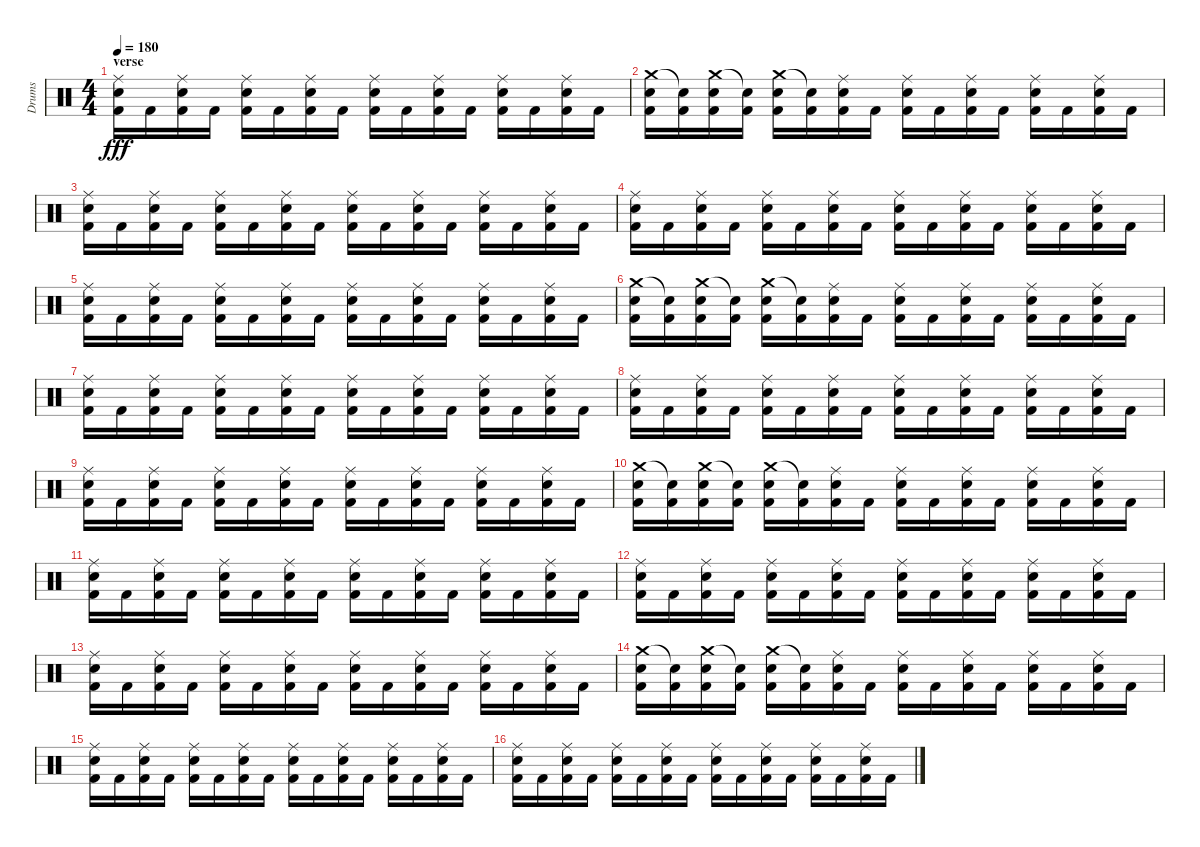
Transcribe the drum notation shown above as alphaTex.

\track ("Drums" "Drums") {instrument percussion}
\staff {score}
\articulation defaults
\ts (4 4)
\section ("" "verse")
\tempo 180
\clef neutral
\ks c
("Ride (middle)" "Electric Snare (hit)" "Kick (hit) 2").16{dy fff} "Kick (hit) 2".16 ("Ride (middle)" "Electric Snare (hit)" "Kick (hit) 2").16 "Kick (hit) 2".16 ("Ride (middle)" "Snare (hit) 2" "Kick (hit) 2").16 "Kick (hit) 2".16 ("Ride (middle)" "Snare (hit) 2" "Kick (hit) 2").16 "Kick (hit) 2".16 ("Ride (middle)" "Electric Snare (hit)" "Kick (hit) 2").16 "Kick (hit) 2".16 ("Ride (middle)" "Electric Snare (hit)" "Kick (hit) 2").16 "Kick (hit) 2".16 ("Ride (middle)" "Snare (hit) 2" "Kick (hit) 2").16 "Kick (hit) 2".16 ("Ride (middle)" "Snare (hit) 2" "Kick (hit) 2").16 "Kick (hit) 2".16 |
("Crash medium (hit)" "Electric Snare (hit)" "Kick (hit) 2").16 ("Snare (hit)"{t} "Kick (hit) 2").16 ("Crash medium (hit)" "Electric Snare (hit)" "Kick (hit) 2").16 ("Snare (hit)"{t} "Kick (hit) 2").16 ("Crash medium (hit)" "Snare (hit) 2" "Kick (hit) 2").16 ("Snare (hit)"{t} "Kick (hit) 2").16 ("Ride (middle)" "Snare (hit) 2" "Kick (hit) 2").16 "Kick (hit) 2".16 ("Ride (middle)" "Electric Snare (hit)" "Kick (hit) 2").16 "Kick (hit) 2".16 ("Ride (middle)" "Electric Snare (hit)" "Kick (hit) 2").16 "Kick (hit) 2".16 ("Ride (middle)" "Snare (hit) 2" "Kick (hit) 2").16 "Kick (hit) 2".16 ("Ride (middle)" "Snare (hit) 2" "Kick (hit) 2").16 "Kick (hit) 2".16 |
("Ride (middle)" "Electric Snare (hit)" "Kick (hit) 2").16 "Kick (hit) 2".16 ("Ride (middle)" "Electric Snare (hit)" "Kick (hit) 2").16 "Kick (hit) 2".16 ("Ride (middle)" "Snare (hit) 2" "Kick (hit) 2").16 "Kick (hit) 2".16 ("Ride (middle)" "Snare (hit) 2" "Kick (hit) 2").16 "Kick (hit) 2".16 ("Ride (middle)" "Electric Snare (hit)" "Kick (hit) 2").16 "Kick (hit) 2".16 ("Ride (middle)" "Electric Snare (hit)" "Kick (hit) 2").16 "Kick (hit) 2".16 ("Ride (middle)" "Snare (hit) 2" "Kick (hit) 2").16 "Kick (hit) 2".16 ("Ride (middle)" "Snare (hit) 2" "Kick (hit) 2").16 "Kick (hit) 2".16 |
("Ride (middle)" "Electric Snare (hit)" "Kick (hit) 2").16 "Kick (hit) 2".16 ("Ride (middle)" "Electric Snare (hit)" "Kick (hit) 2").16 "Kick (hit) 2".16 ("Ride (middle)" "Snare (hit) 2" "Kick (hit) 2").16 "Kick (hit) 2".16 ("Ride (middle)" "Snare (hit) 2" "Kick (hit) 2").16 "Kick (hit) 2".16 ("Ride (middle)" "Electric Snare (hit)" "Kick (hit) 2").16 "Kick (hit) 2".16 ("Ride (middle)" "Electric Snare (hit)" "Kick (hit) 2").16 "Kick (hit) 2".16 ("Ride (middle)" "Snare (hit) 2" "Kick (hit) 2").16 "Kick (hit) 2".16 ("Ride (middle)" "Snare (hit) 2" "Kick (hit) 2").16 "Kick (hit) 2".16 |
("Ride (middle)" "Electric Snare (hit)" "Kick (hit) 2").16 "Kick (hit) 2".16 ("Ride (middle)" "Electric Snare (hit)" "Kick (hit) 2").16 "Kick (hit) 2".16 ("Ride (middle)" "Snare (hit) 2" "Kick (hit) 2").16 "Kick (hit) 2".16 ("Ride (middle)" "Snare (hit) 2" "Kick (hit) 2").16 "Kick (hit) 2".16 ("Ride (middle)" "Electric Snare (hit)" "Kick (hit) 2").16 "Kick (hit) 2".16 ("Ride (middle)" "Electric Snare (hit)" "Kick (hit) 2").16 "Kick (hit) 2".16 ("Ride (middle)" "Snare (hit) 2" "Kick (hit) 2").16 "Kick (hit) 2".16 ("Ride (middle)" "Snare (hit) 2" "Kick (hit) 2").16 "Kick (hit) 2".16 |
("Crash medium (hit)" "Electric Snare (hit)" "Kick (hit) 2").16 ("Snare (hit)"{t} "Kick (hit) 2").16 ("Crash medium (hit)" "Electric Snare (hit)" "Kick (hit) 2").16 ("Snare (hit)"{t} "Kick (hit) 2").16 ("Crash medium (hit)" "Snare (hit) 2" "Kick (hit) 2").16 ("Snare (hit)"{t} "Kick (hit) 2").16 ("Ride (middle)" "Snare (hit) 2" "Kick (hit) 2").16 "Kick (hit) 2".16 ("Ride (middle)" "Electric Snare (hit)" "Kick (hit) 2").16 "Kick (hit) 2".16 ("Ride (middle)" "Electric Snare (hit)" "Kick (hit) 2").16 "Kick (hit) 2".16 ("Ride (middle)" "Snare (hit) 2" "Kick (hit) 2").16 "Kick (hit) 2".16 ("Ride (middle)" "Snare (hit) 2" "Kick (hit) 2").16 "Kick (hit) 2".16 |
("Ride (middle)" "Electric Snare (hit)" "Kick (hit) 2").16 "Kick (hit) 2".16 ("Ride (middle)" "Electric Snare (hit)" "Kick (hit) 2").16 "Kick (hit) 2".16 ("Ride (middle)" "Snare (hit) 2" "Kick (hit) 2").16 "Kick (hit) 2".16 ("Ride (middle)" "Snare (hit) 2" "Kick (hit) 2").16 "Kick (hit) 2".16 ("Ride (middle)" "Electric Snare (hit)" "Kick (hit) 2").16 "Kick (hit) 2".16 ("Ride (middle)" "Electric Snare (hit)" "Kick (hit) 2").16 "Kick (hit) 2".16 ("Ride (middle)" "Snare (hit) 2" "Kick (hit) 2").16 "Kick (hit) 2".16 ("Ride (middle)" "Snare (hit) 2" "Kick (hit) 2").16 "Kick (hit) 2".16 |
("Ride (middle)" "Electric Snare (hit)" "Kick (hit) 2").16 "Kick (hit) 2".16 ("Ride (middle)" "Electric Snare (hit)" "Kick (hit) 2").16 "Kick (hit) 2".16 ("Ride (middle)" "Snare (hit) 2" "Kick (hit) 2").16 "Kick (hit) 2".16 ("Ride (middle)" "Snare (hit) 2" "Kick (hit) 2").16 "Kick (hit) 2".16 ("Ride (middle)" "Electric Snare (hit)" "Kick (hit) 2").16 "Kick (hit) 2".16 ("Ride (middle)" "Electric Snare (hit)" "Kick (hit) 2").16 "Kick (hit) 2".16 ("Ride (middle)" "Snare (hit) 2" "Kick (hit) 2").16 "Kick (hit) 2".16 ("Ride (middle)" "Snare (hit) 2" "Kick (hit) 2").16 "Kick (hit) 2".16 |
("Ride (middle)" "Electric Snare (hit)" "Kick (hit) 2").16 "Kick (hit) 2".16 ("Ride (middle)" "Electric Snare (hit)" "Kick (hit) 2").16 "Kick (hit) 2".16 ("Ride (middle)" "Snare (hit) 2" "Kick (hit) 2").16 "Kick (hit) 2".16 ("Ride (middle)" "Snare (hit) 2" "Kick (hit) 2").16 "Kick (hit) 2".16 ("Ride (middle)" "Electric Snare (hit)" "Kick (hit) 2").16 "Kick (hit) 2".16 ("Ride (middle)" "Electric Snare (hit)" "Kick (hit) 2").16 "Kick (hit) 2".16 ("Ride (middle)" "Snare (hit) 2" "Kick (hit) 2").16 "Kick (hit) 2".16 ("Ride (middle)" "Snare (hit) 2" "Kick (hit) 2").16 "Kick (hit) 2".16 |
("Crash medium (hit)" "Electric Snare (hit)" "Kick (hit) 2").16 ("Snare (hit)"{t} "Kick (hit) 2").16 ("Crash medium (hit)" "Electric Snare (hit)" "Kick (hit) 2").16 ("Snare (hit)"{t} "Kick (hit) 2").16 ("Crash medium (hit)" "Snare (hit) 2" "Kick (hit) 2").16 ("Snare (hit)"{t} "Kick (hit) 2").16 ("Ride (middle)" "Snare (hit) 2" "Kick (hit) 2").16 "Kick (hit) 2".16 ("Ride (middle)" "Electric Snare (hit)" "Kick (hit) 2").16 "Kick (hit) 2".16 ("Ride (middle)" "Electric Snare (hit)" "Kick (hit) 2").16 "Kick (hit) 2".16 ("Ride (middle)" "Snare (hit) 2" "Kick (hit) 2").16 "Kick (hit) 2".16 ("Ride (middle)" "Snare (hit) 2" "Kick (hit) 2").16 "Kick (hit) 2".16 |
("Ride (middle)" "Electric Snare (hit)" "Kick (hit) 2").16 "Kick (hit) 2".16 ("Ride (middle)" "Electric Snare (hit)" "Kick (hit) 2").16 "Kick (hit) 2".16 ("Ride (middle)" "Snare (hit) 2" "Kick (hit) 2").16 "Kick (hit) 2".16 ("Ride (middle)" "Snare (hit) 2" "Kick (hit) 2").16 "Kick (hit) 2".16 ("Ride (middle)" "Electric Snare (hit)" "Kick (hit) 2").16 "Kick (hit) 2".16 ("Ride (middle)" "Electric Snare (hit)" "Kick (hit) 2").16 "Kick (hit) 2".16 ("Ride (middle)" "Snare (hit) 2" "Kick (hit) 2").16 "Kick (hit) 2".16 ("Ride (middle)" "Snare (hit) 2" "Kick (hit) 2").16 "Kick (hit) 2".16 |
("Ride (middle)" "Electric Snare (hit)" "Kick (hit) 2").16 "Kick (hit) 2".16 ("Ride (middle)" "Electric Snare (hit)" "Kick (hit) 2").16 "Kick (hit) 2".16 ("Ride (middle)" "Snare (hit) 2" "Kick (hit) 2").16 "Kick (hit) 2".16 ("Ride (middle)" "Snare (hit) 2" "Kick (hit) 2").16 "Kick (hit) 2".16 ("Ride (middle)" "Electric Snare (hit)" "Kick (hit) 2").16 "Kick (hit) 2".16 ("Ride (middle)" "Electric Snare (hit)" "Kick (hit) 2").16 "Kick (hit) 2".16 ("Ride (middle)" "Snare (hit) 2" "Kick (hit) 2").16 "Kick (hit) 2".16 ("Ride (middle)" "Snare (hit) 2" "Kick (hit) 2").16 "Kick (hit) 2".16 |
("Ride (middle)" "Electric Snare (hit)" "Kick (hit) 2").16 "Kick (hit) 2".16 ("Ride (middle)" "Electric Snare (hit)" "Kick (hit) 2").16 "Kick (hit) 2".16 ("Ride (middle)" "Snare (hit) 2" "Kick (hit) 2").16 "Kick (hit) 2".16 ("Ride (middle)" "Snare (hit) 2" "Kick (hit) 2").16 "Kick (hit) 2".16 ("Ride (middle)" "Electric Snare (hit)" "Kick (hit) 2").16 "Kick (hit) 2".16 ("Ride (middle)" "Electric Snare (hit)" "Kick (hit) 2").16 "Kick (hit) 2".16 ("Ride (middle)" "Snare (hit) 2" "Kick (hit) 2").16 "Kick (hit) 2".16 ("Ride (middle)" "Snare (hit) 2" "Kick (hit) 2").16 "Kick (hit) 2".16 |
("Crash medium (hit)" "Electric Snare (hit)" "Kick (hit) 2").16 ("Snare (hit)"{t} "Kick (hit) 2").16 ("Crash medium (hit)" "Electric Snare (hit)" "Kick (hit) 2").16 ("Snare (hit)"{t} "Kick (hit) 2").16 ("Crash medium (hit)" "Snare (hit) 2" "Kick (hit) 2").16 ("Snare (hit)"{t} "Kick (hit) 2").16 ("Ride (middle)" "Snare (hit) 2" "Kick (hit) 2").16 "Kick (hit) 2".16 ("Ride (middle)" "Electric Snare (hit)" "Kick (hit) 2").16 "Kick (hit) 2".16 ("Ride (middle)" "Electric Snare (hit)" "Kick (hit) 2").16 "Kick (hit) 2".16 ("Ride (middle)" "Snare (hit) 2" "Kick (hit) 2").16 "Kick (hit) 2".16 ("Ride (middle)" "Snare (hit) 2" "Kick (hit) 2").16 "Kick (hit) 2".16 |
("Ride (middle)" "Electric Snare (hit)" "Kick (hit) 2").16 "Kick (hit) 2".16 ("Ride (middle)" "Electric Snare (hit)" "Kick (hit) 2").16 "Kick (hit) 2".16 ("Ride (middle)" "Snare (hit) 2" "Kick (hit) 2").16 "Kick (hit) 2".16 ("Ride (middle)" "Snare (hit) 2" "Kick (hit) 2").16 "Kick (hit) 2".16 ("Ride (middle)" "Electric Snare (hit)" "Kick (hit) 2").16 "Kick (hit) 2".16 ("Ride (middle)" "Electric Snare (hit)" "Kick (hit) 2").16 "Kick (hit) 2".16 ("Ride (middle)" "Snare (hit) 2" "Kick (hit) 2").16 "Kick (hit) 2".16 ("Ride (middle)" "Snare (hit) 2" "Kick (hit) 2").16 "Kick (hit) 2".16 |
("Ride (middle)" "Electric Snare (hit)" "Kick (hit) 2").16 "Kick (hit) 2".16 ("Ride (middle)" "Electric Snare (hit)" "Kick (hit) 2").16 "Kick (hit) 2".16 ("Ride (middle)" "Snare (hit) 2" "Kick (hit) 2").16 "Kick (hit) 2".16 ("Ride (middle)" "Snare (hit) 2" "Kick (hit) 2").16 "Kick (hit) 2".16 ("Ride (middle)" "Electric Snare (hit)" "Kick (hit) 2").16 "Kick (hit) 2".16 ("Ride (middle)" "Electric Snare (hit)" "Kick (hit) 2").16 "Kick (hit) 2".16 ("Ride (middle)" "Snare (hit) 2" "Kick (hit) 2").16 "Kick (hit) 2".16 ("Ride (middle)" "Snare (hit) 2" "Kick (hit) 2").16 "Kick (hit) 2".16
